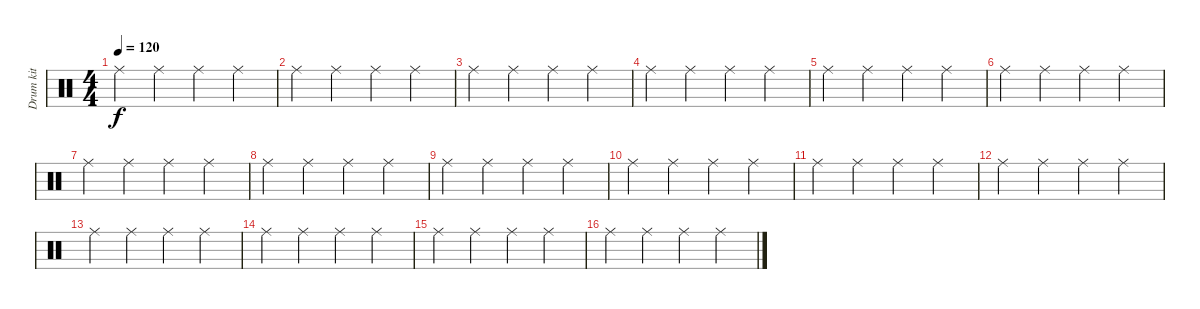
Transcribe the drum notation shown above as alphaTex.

\track ("Drum kit" "Drum kit") {instrument percussion}
\staff {score}
\articulation defaults
\ts (4 4)
\tempo 120
\clef neutral
\ks c "Ride (middle)".4{dy f} "Ride (middle)".4 "Ride (middle)".4 "Ride (middle)".4
|
"Ride (middle)".4 "Ride (middle)".4 "Ride (middle)".4 "Ride (middle)".4 |
"Ride (middle)".4 "Ride (middle)".4 "Ride (middle)".4 "Ride (middle)".4 |
"Ride (middle)".4 "Ride (middle)".4 "Ride (middle)".4 "Ride (middle)".4 |
"Ride (middle)".4 "Ride (middle)".4 "Ride (middle)".4 "Ride (middle)".4 |
"Ride (middle)".4 "Ride (middle)".4 "Ride (middle)".4 "Ride (middle)".4 |
"Ride (middle)".4 "Ride (middle)".4 "Ride (middle)".4 "Ride (middle)".4 |
"Ride (middle)".4 "Ride (middle)".4 "Ride (middle)".4 "Ride (middle)".4 |
"Ride (middle)".4 "Ride (middle)".4 "Ride (middle)".4 "Ride (middle)".4 |
"Ride (middle)".4 "Ride (middle)".4 "Ride (middle)".4 "Ride (middle)".4 |
"Ride (middle)".4 "Ride (middle)".4 "Ride (middle)".4 "Ride (middle)".4 |
"Ride (middle)".4 "Ride (middle)".4 "Ride (middle)".4 "Ride (middle)".4 |
"Ride (middle)".4 "Ride (middle)".4 "Ride (middle)".4 "Ride (middle)".4 |
"Ride (middle)".4 "Ride (middle)".4 "Ride (middle)".4 "Ride (middle)".4 |
"Ride (middle)".4 "Ride (middle)".4 "Ride (middle)".4 "Ride (middle)".4 |
"Ride (middle)".4 "Ride (middle)".4 "Ride (middle)".4 "Ride (middle)".4
